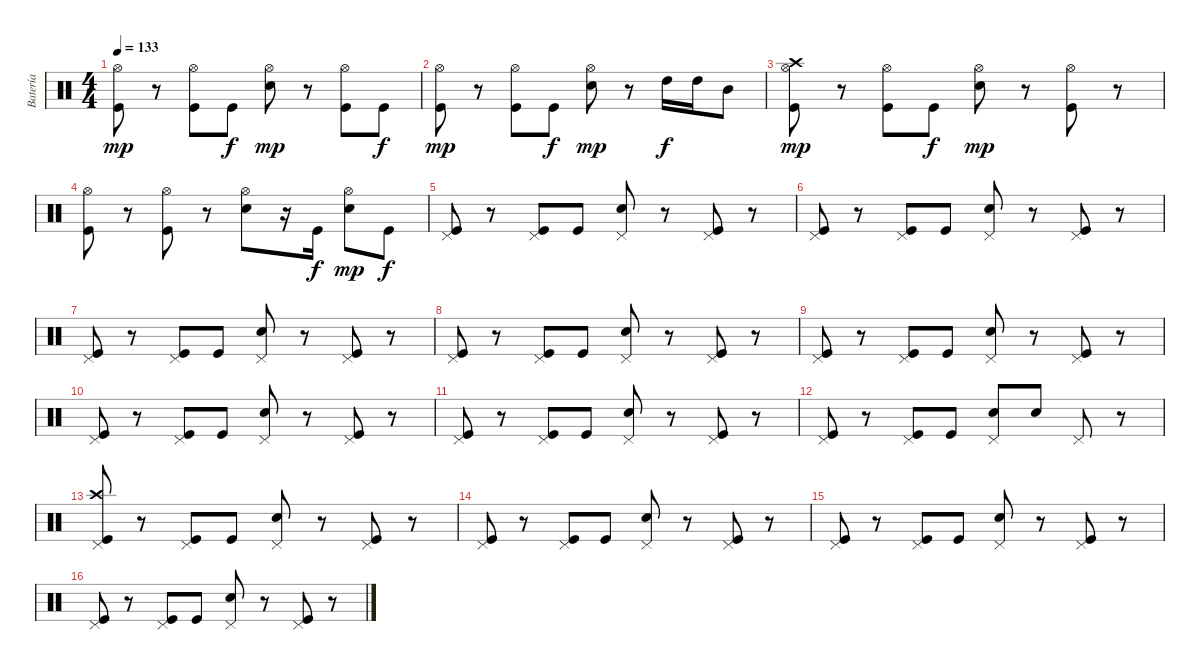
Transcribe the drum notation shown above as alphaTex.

\track ("Batería" "Batería") {instrument percussion}
\staff {score}
\articulation defaults
\ts (4 4)
\tempo 133
\clef neutral
\ks c
("Hi-Hat (open)" "Kick (hit)").8{dy mp} r.8 ("Hi-Hat (open)" "Kick (hit)").8 "Kick (hit)".8{dy f} ("Hi-Hat (open)" "Snare (hit) 2").8{dy mp} r.8 ("Hi-Hat (open)" "Kick (hit)").8 "Kick (hit)".8{dy f} |
("Hi-Hat (open)" "Kick (hit)").8{dy mp} r.8 ("Hi-Hat (open)" "Kick (hit)").8 "Kick (hit)".8{dy f} ("Hi-Hat (open)" "Snare (hit) 2").8{dy mp} r.8 "High Tom (hit)".16{dy f} "High Tom (hit)".16 "Mid Tom (hit)".8 |
("Hi-Hat (open)" "Crash high (hit)" "Kick (hit)").8{dy mp} r.8 ("Hi-Hat (open)" "Kick (hit)").8 "Kick (hit)".8{dy f} ("Hi-Hat (open)" "Snare (hit) 2").8{dy mp} r.8 ("Hi-Hat (open)" "Kick (hit)").8 r.8 |
("Hi-Hat (open)" "Kick (hit)").8 r.8 ("Hi-Hat (open)" "Kick (hit)").8 r.8 ("Hi-Hat (open)" "Snare (hit) 2").8 r.16 "Kick (hit)".16{dy f} ("Hi-Hat (open)" "Snare (hit) 2").8{dy mp} "Kick (hit)".8{dy f} |
("Pedal Hi-Hat (hit)" "Kick (hit)").8 r.8 ("Pedal Hi-Hat (hit)" "Kick (hit)").8 "Kick (hit)".8 ("Pedal Hi-Hat (hit)" "Snare (hit) 2").8 r.8 ("Pedal Hi-Hat (hit)" "Kick (hit)").8 r.8 |
("Pedal Hi-Hat (hit)" "Kick (hit)").8 r.8 ("Pedal Hi-Hat (hit)" "Kick (hit)").8 "Kick (hit)".8 ("Pedal Hi-Hat (hit)" "Snare (hit) 2").8 r.8 ("Pedal Hi-Hat (hit)" "Kick (hit)").8 r.8 |
("Pedal Hi-Hat (hit)" "Kick (hit)").8 r.8 ("Pedal Hi-Hat (hit)" "Kick (hit)").8 "Kick (hit)".8 ("Pedal Hi-Hat (hit)" "Snare (hit) 2").8 r.8 ("Pedal Hi-Hat (hit)" "Kick (hit)").8 r.8 |
("Pedal Hi-Hat (hit)" "Kick (hit)").8 r.8 ("Pedal Hi-Hat (hit)" "Kick (hit)").8 "Kick (hit)".8 ("Pedal Hi-Hat (hit)" "Snare (hit) 2").8 r.8 ("Pedal Hi-Hat (hit)" "Kick (hit)").8 r.8 |
("Pedal Hi-Hat (hit)" "Kick (hit)").8 r.8 ("Pedal Hi-Hat (hit)" "Kick (hit)").8 "Kick (hit)".8 ("Pedal Hi-Hat (hit)" "Snare (hit) 2").8 r.8 ("Pedal Hi-Hat (hit)" "Kick (hit)").8 r.8 |
("Pedal Hi-Hat (hit)" "Kick (hit)").8 r.8 ("Pedal Hi-Hat (hit)" "Kick (hit)").8 "Kick (hit)".8 ("Pedal Hi-Hat (hit)" "Snare (hit) 2").8 r.8 ("Pedal Hi-Hat (hit)" "Kick (hit)").8 r.8 |
("Pedal Hi-Hat (hit)" "Kick (hit)").8 r.8 ("Pedal Hi-Hat (hit)" "Kick (hit)").8 "Kick (hit)".8 ("Pedal Hi-Hat (hit)" "Snare (hit) 2").8 r.8 ("Pedal Hi-Hat (hit)" "Kick (hit)").8 r.8 |
("Pedal Hi-Hat (hit)" "Kick (hit)").8 r.8 ("Pedal Hi-Hat (hit)" "Kick (hit)").8 "Kick (hit)".8 ("Pedal Hi-Hat (hit)" "Snare (hit) 2").8 "Snare (hit) 2".8 "Pedal Hi-Hat (hit)".8 r.8 |
("Pedal Hi-Hat (hit)" "Crash high (hit)" "Kick (hit)").8 r.8 ("Pedal Hi-Hat (hit)" "Kick (hit)").8 "Kick (hit)".8 ("Pedal Hi-Hat (hit)" "Snare (hit) 2").8 r.8 ("Pedal Hi-Hat (hit)" "Kick (hit)").8 r.8 |
("Pedal Hi-Hat (hit)" "Kick (hit)").8 r.8 ("Pedal Hi-Hat (hit)" "Kick (hit)").8 "Kick (hit)".8 ("Pedal Hi-Hat (hit)" "Snare (hit) 2").8 r.8 ("Pedal Hi-Hat (hit)" "Kick (hit)").8 r.8 |
("Pedal Hi-Hat (hit)" "Kick (hit)").8 r.8 ("Pedal Hi-Hat (hit)" "Kick (hit)").8 "Kick (hit)".8 ("Pedal Hi-Hat (hit)" "Snare (hit) 2").8 r.8 ("Pedal Hi-Hat (hit)" "Kick (hit)").8 r.8 |
("Pedal Hi-Hat (hit)" "Kick (hit)").8 r.8 ("Pedal Hi-Hat (hit)" "Kick (hit)").8 "Kick (hit)".8 ("Pedal Hi-Hat (hit)" "Snare (hit) 2").8 r.8 ("Pedal Hi-Hat (hit)" "Kick (hit)").8 r.8
